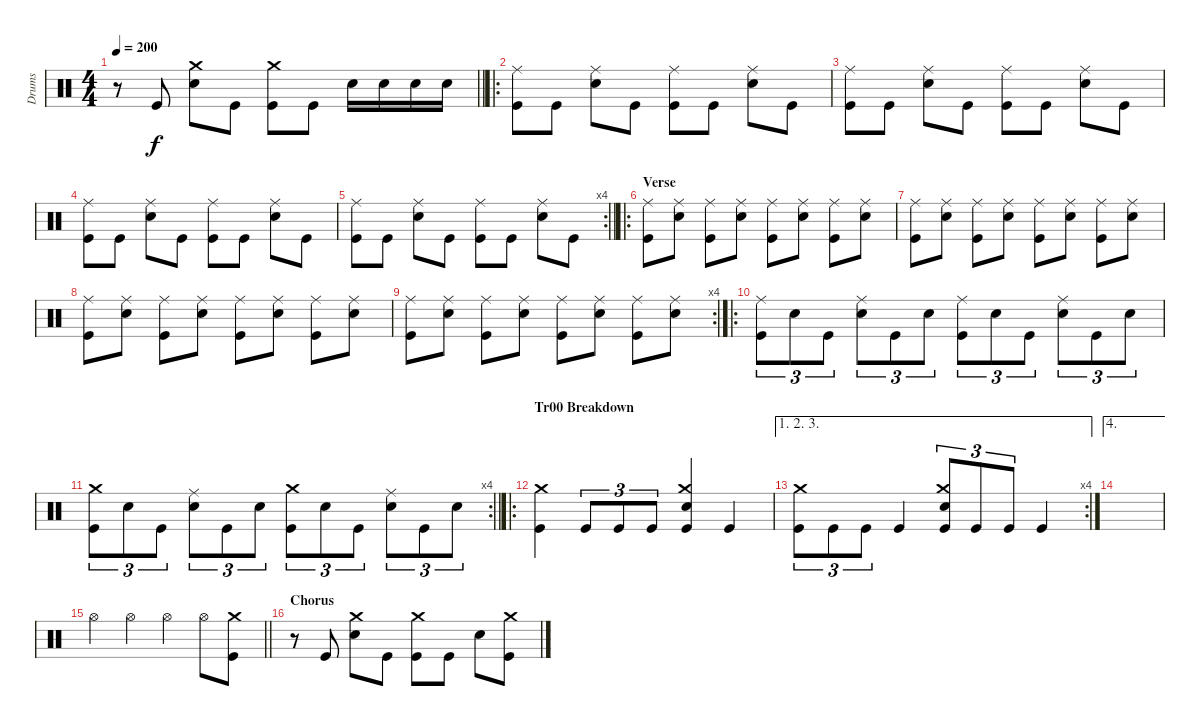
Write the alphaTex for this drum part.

\track ("Drums" "Drums") {instrument percussion}
\staff {score}
\articulation defaults
\ts (4 4)
\tempo 200
\clef neutral
\barLineRight lightlight
\ks c
r.8{dy f} "Kick (hit)".8 ("Crash medium (hit)" "Snare (hit) 2").8 "Kick (hit)".8 ("Crash medium (hit)" "Kick (hit)").8 "Kick (hit)".8 "Snare (hit) 2".16 "Snare (hit) 2".16 "Snare (hit) 2".16 "Snare (hit) 2".16 |
\ro
("Ride (middle)" "Kick (hit)").8 "Kick (hit)".8 ("Ride (middle)" "Snare (hit) 2").8 "Kick (hit)".8 ("Ride (middle)" "Kick (hit)").8 "Kick (hit)".8 ("Ride (middle)" "Snare (hit) 2").8 "Kick (hit)".8 |
("Ride (middle)" "Kick (hit)").8 "Kick (hit)".8 ("Ride (middle)" "Snare (hit) 2").8 "Kick (hit)".8 ("Ride (middle)" "Kick (hit)").8 "Kick (hit)".8 ("Ride (middle)" "Snare (hit) 2").8 "Kick (hit)".8 |
("Ride (middle)" "Kick (hit)").8 "Kick (hit)".8 ("Ride (middle)" "Snare (hit) 2").8 "Kick (hit)".8 ("Ride (middle)" "Kick (hit)").8 "Kick (hit)".8 ("Ride (middle)" "Snare (hit) 2").8 "Kick (hit)".8 |
\rc 4
\barLineRight lightlight
("Ride (middle)" "Kick (hit)").8 "Kick (hit)".8 ("Ride (middle)" "Snare (hit) 2").8 "Kick (hit)".8 ("Ride (middle)" "Kick (hit)").8 "Kick (hit)".8 ("Ride (middle)" "Snare (hit) 2").8 "Kick (hit)".8 |
\ro
\section ("" "Verse")
("Ride (middle)" "Kick (hit)").8 ("Ride (middle)" "Snare (hit) 2").8 ("Ride (middle)" "Kick (hit)").8 ("Ride (middle)" "Snare (hit) 2").8 ("Ride (middle)" "Kick (hit)").8 ("Ride (middle)" "Snare (hit) 2").8 ("Ride (middle)" "Kick (hit)").8 ("Ride (middle)" "Snare (hit) 2").8 |
("Ride (middle)" "Kick (hit)").8 ("Ride (middle)" "Snare (hit) 2").8 ("Ride (middle)" "Kick (hit)").8 ("Ride (middle)" "Snare (hit) 2").8 ("Ride (middle)" "Kick (hit)").8 ("Ride (middle)" "Snare (hit) 2").8 ("Ride (middle)" "Kick (hit)").8 ("Ride (middle)" "Snare (hit) 2").8 |
("Ride (middle)" "Kick (hit)").8 ("Ride (middle)" "Snare (hit) 2").8 ("Ride (middle)" "Kick (hit)").8 ("Ride (middle)" "Snare (hit) 2").8 ("Ride (middle)" "Kick (hit)").8 ("Ride (middle)" "Snare (hit) 2").8 ("Ride (middle)" "Kick (hit)").8 ("Ride (middle)" "Snare (hit) 2").8 |
\rc 4
("Ride (middle)" "Kick (hit)").8 ("Ride (middle)" "Snare (hit) 2").8 ("Ride (middle)" "Kick (hit)").8 ("Ride (middle)" "Snare (hit) 2").8 ("Ride (middle)" "Kick (hit)").8 ("Ride (middle)" "Snare (hit) 2").8 ("Ride (middle)" "Kick (hit)").8 ("Ride (middle)" "Snare (hit) 2").8 |
\ro
("Ride (middle)" "Kick (hit)").8{tu (3 2)} "Snare (hit) 2".8{tu (3 2)} "Kick (hit)".8{tu (3 2)} ("Ride (middle)" "Snare (hit) 2").8{tu (3 2)} "Kick (hit)".8{tu (3 2)} "Snare (hit) 2".8{tu (3 2)} ("Ride (middle)" "Kick (hit)").8{tu (3 2)} "Snare (hit) 2".8{tu (3 2)} "Kick (hit)".8{tu (3 2)} ("Ride (middle)" "Snare (hit) 2").8{tu (3 2)} "Kick (hit)".8{tu (3 2)} "Snare (hit) 2".8{tu (3 2)} |
\rc 4
\barLineRight lightlight
("Crash medium (hit)" "Kick (hit)").8{tu (3 2)} "Snare (hit) 2".8{tu (3 2)} "Kick (hit)".8{tu (3 2)} ("Ride (middle)" "Snare (hit) 2").8{tu (3 2)} "Kick (hit)".8{tu (3 2)} "Snare (hit) 2".8{tu (3 2)} ("Crash medium (hit)" "Kick (hit)").8{tu (3 2)} "Snare (hit) 2".8{tu (3 2)} "Kick (hit)".8{tu (3 2)} ("Ride (middle)" "Snare (hit) 2").8{tu (3 2)} "Kick (hit)".8{tu (3 2)} "Snare (hit) 2".8{tu (3 2)} |
\ro
\section ("" "Tr00 Breakdown")
("Crash medium (hit)" "Kick (hit)").4 "Kick (hit)".8{tu (3 2)} "Kick (hit)".8{tu (3 2)} "Kick (hit)".8{tu (3 2)} ("Crash medium (hit)" "Snare (hit) 2" "Kick (hit)").4 "Kick (hit)".4 |
\ae (1 2 3)
\rc 4
("Crash medium (hit)" "Kick (hit)").8{tu (3 2)} "Kick (hit)".8{tu (3 2)} "Kick (hit)".8{tu (3 2)} "Kick (hit)".4 ("Crash medium (hit)" "Snare (hit) 2" "Kick (hit)").8{tu (3 2)} "Kick (hit)".8{tu (3 2)} "Kick (hit)".8{tu (3 2)} "Kick (hit)".4 |
\ae 4
|
\barLineRight lightlight "Hi-Hat (open)".4 "Hi-Hat (open)".4 "Hi-Hat (open)".4 "Hi-Hat (open)".8
("Crash medium (hit)" "Kick (hit)").8 |
\section ("" "Chorus")
r.8 "Kick (hit)".8 ("Crash medium (hit)" "Snare (hit) 2").8 "Kick (hit)".8 ("Crash medium (hit)" "Kick (hit)").8 "Kick (hit)".8 "Snare (hit) 2".8 ("Crash medium (hit)" "Kick (hit)").8
